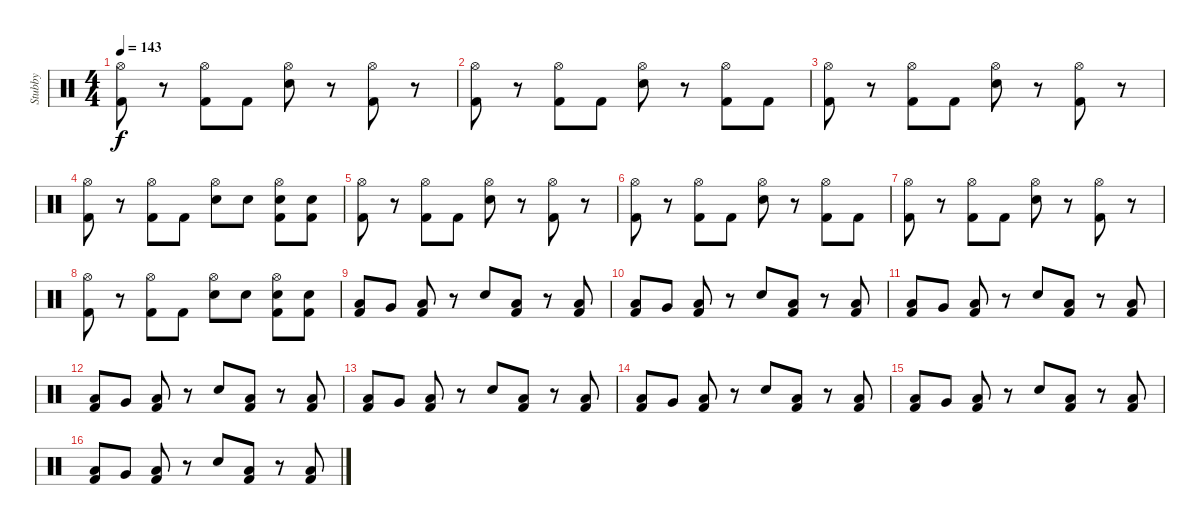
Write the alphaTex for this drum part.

\track ("Stubby" "Stubby") {instrument percussion}
\staff {score}
\articulation defaults
\ts (4 4)
\tempo 143
\clef neutral
\ks c
("Hi-Hat (open)" "Kick (hit) 2").8{dy f} r.8 ("Hi-Hat (open)" "Kick (hit) 2").8 "Kick (hit) 2".8 ("Hi-Hat (open)" "Electric Snare (hit)").8 r.8 ("Hi-Hat (open)" "Kick (hit) 2").8 r.8 |
("Hi-Hat (open)" "Kick (hit) 2").8 r.8 ("Hi-Hat (open)" "Kick (hit) 2").8 "Kick (hit) 2".8 ("Hi-Hat (open)" "Electric Snare (hit)").8 r.8 ("Hi-Hat (open)" "Kick (hit) 2").8 "Kick (hit) 2".8 |
("Hi-Hat (open)" "Kick (hit) 2").8 r.8 ("Hi-Hat (open)" "Kick (hit) 2").8 "Kick (hit) 2".8 ("Hi-Hat (open)" "Electric Snare (hit)").8 r.8 ("Hi-Hat (open)" "Kick (hit) 2").8 r.8 |
("Hi-Hat (open)" "Kick (hit) 2").8 r.8 ("Hi-Hat (open)" "Kick (hit) 2").8 "Kick (hit) 2".8 ("Hi-Hat (open)" "Electric Snare (hit)").8 "Electric Snare (hit)".8 ("Hi-Hat (open)" "Electric Snare (hit)" "Kick (hit) 2").8 ("Electric Snare (hit)" "Kick (hit) 2").8 |
("Hi-Hat (open)" "Kick (hit) 2").8 r.8 ("Hi-Hat (open)" "Kick (hit) 2").8 "Kick (hit) 2".8 ("Hi-Hat (open)" "Electric Snare (hit)").8 r.8 ("Hi-Hat (open)" "Kick (hit) 2").8 r.8 |
("Hi-Hat (open)" "Kick (hit) 2").8 r.8 ("Hi-Hat (open)" "Kick (hit) 2").8 "Kick (hit) 2".8 ("Hi-Hat (open)" "Electric Snare (hit)").8 r.8 ("Hi-Hat (open)" "Kick (hit) 2").8 "Kick (hit) 2".8 |
("Hi-Hat (open)" "Kick (hit) 2").8 r.8 ("Hi-Hat (open)" "Kick (hit) 2").8 "Kick (hit) 2".8 ("Hi-Hat (open)" "Electric Snare (hit)").8 r.8 ("Hi-Hat (open)" "Kick (hit) 2").8 r.8 |
("Hi-Hat (open)" "Kick (hit) 2").8 r.8 ("Hi-Hat (open)" "Kick (hit) 2").8 "Kick (hit) 2".8 ("Hi-Hat (open)" "Electric Snare (hit)").8 "Electric Snare (hit)".8 ("Hi-Hat (open)" "Electric Snare (hit)" "Kick (hit) 2").8 ("Electric Snare (hit)" "Kick (hit) 2").8 |
("Low Tom (hit)" "Kick (hit) 2").8 "Very Low Tom (hit)".8 ("Low Floor Tom (hit)" "Kick (hit) 2").8 r.8 "Electric Snare (hit)".8 ("Low Tom (hit)" "Kick (hit) 2").8 r.8 ("Low Floor Tom (hit)" "Kick (hit) 2").8 |
("Low Tom (hit)" "Kick (hit) 2").8 "Very Low Tom (hit)".8 ("Low Floor Tom (hit)" "Kick (hit) 2").8 r.8 "Electric Snare (hit)".8 ("Low Tom (hit)" "Kick (hit) 2").8 r.8 ("Low Floor Tom (hit)" "Kick (hit) 2").8 |
("Low Tom (hit)" "Kick (hit) 2").8 "Very Low Tom (hit)".8 ("Low Floor Tom (hit)" "Kick (hit) 2").8 r.8 "Electric Snare (hit)".8 ("Low Tom (hit)" "Kick (hit) 2").8 r.8 ("Low Floor Tom (hit)" "Kick (hit) 2").8 |
("Low Tom (hit)" "Kick (hit) 2").8 "Very Low Tom (hit)".8 ("Low Floor Tom (hit)" "Kick (hit) 2").8 r.8 "Electric Snare (hit)".8 ("Low Tom (hit)" "Kick (hit) 2").8 r.8 ("Low Floor Tom (hit)" "Kick (hit) 2").8 |
("Low Tom (hit)" "Kick (hit) 2").8 "Very Low Tom (hit)".8 ("Low Floor Tom (hit)" "Kick (hit) 2").8 r.8 "Electric Snare (hit)".8 ("Low Tom (hit)" "Kick (hit) 2").8 r.8 ("Low Floor Tom (hit)" "Kick (hit) 2").8 |
("Low Tom (hit)" "Kick (hit) 2").8 "Very Low Tom (hit)".8 ("Low Floor Tom (hit)" "Kick (hit) 2").8 r.8 "Electric Snare (hit)".8 ("Low Tom (hit)" "Kick (hit) 2").8 r.8 ("Low Floor Tom (hit)" "Kick (hit) 2").8 |
("Low Tom (hit)" "Kick (hit) 2").8 "Very Low Tom (hit)".8 ("Low Floor Tom (hit)" "Kick (hit) 2").8 r.8 "Electric Snare (hit)".8 ("Low Tom (hit)" "Kick (hit) 2").8 r.8 ("Low Floor Tom (hit)" "Kick (hit) 2").8 |
("Low Tom (hit)" "Kick (hit) 2").8 "Very Low Tom (hit)".8 ("Low Floor Tom (hit)" "Kick (hit) 2").8 r.8 "Electric Snare (hit)".8 ("Low Tom (hit)" "Kick (hit) 2").8 r.8 ("Low Floor Tom (hit)" "Kick (hit) 2").8
